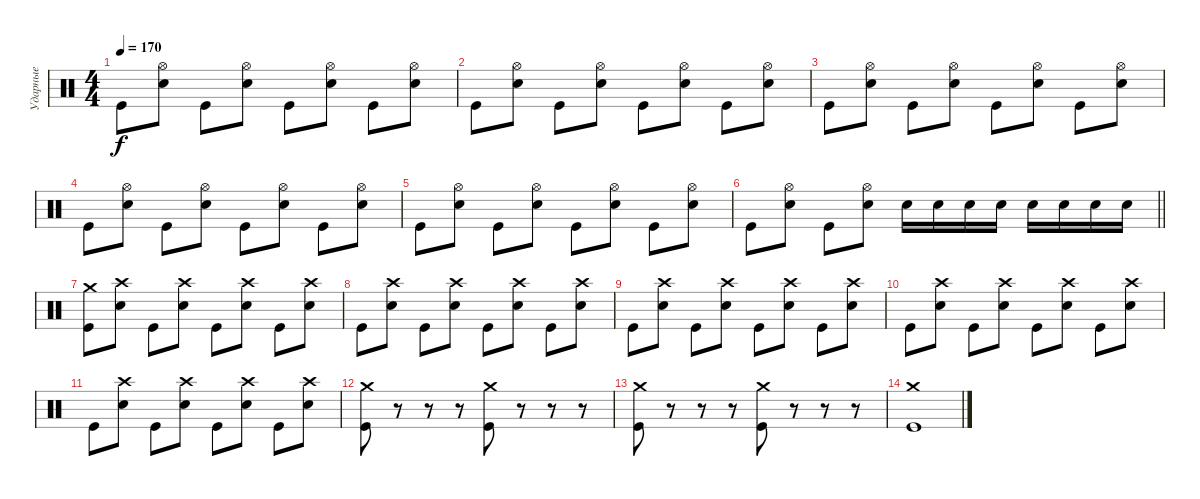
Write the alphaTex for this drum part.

\track ("Ударные" "Ударные") {instrument percussion}
\staff {score}
\articulation defaults
\ts (4 4)
\tempo 170
\clef neutral
\ks c "Kick (hit)".8{dy f}
("Hi-Hat (open)" "Electric Snare (hit)").8 "Kick (hit)".8 ("Hi-Hat (open)" "Electric Snare (hit)").8 "Kick (hit)".8 ("Hi-Hat (open)" "Electric Snare (hit)").8 "Kick (hit)".8 ("Hi-Hat (open)" "Electric Snare (hit)").8 |
"Kick (hit)".8 ("Hi-Hat (open)" "Electric Snare (hit)").8 "Kick (hit)".8 ("Hi-Hat (open)" "Electric Snare (hit)").8 "Kick (hit)".8 ("Hi-Hat (open)" "Electric Snare (hit)").8 "Kick (hit)".8 ("Hi-Hat (open)" "Electric Snare (hit)").8 |
"Kick (hit)".8 ("Hi-Hat (open)" "Electric Snare (hit)").8 "Kick (hit)".8 ("Hi-Hat (open)" "Electric Snare (hit)").8 "Kick (hit)".8 ("Hi-Hat (open)" "Electric Snare (hit)").8 "Kick (hit)".8 ("Hi-Hat (open)" "Electric Snare (hit)").8 |
"Kick (hit)".8 ("Hi-Hat (open)" "Electric Snare (hit)").8 "Kick (hit)".8 ("Hi-Hat (open)" "Electric Snare (hit)").8 "Kick (hit)".8 ("Hi-Hat (open)" "Electric Snare (hit)").8 "Kick (hit)".8 ("Hi-Hat (open)" "Electric Snare (hit)").8 |
"Kick (hit)".8 ("Hi-Hat (open)" "Electric Snare (hit)").8 "Kick (hit)".8 ("Hi-Hat (open)" "Electric Snare (hit)").8 "Kick (hit)".8 ("Hi-Hat (open)" "Electric Snare (hit)").8 "Kick (hit)".8 ("Hi-Hat (open)" "Electric Snare (hit)").8 |
\barLineRight lightlight "Kick (hit)".8
("Hi-Hat (open)" "Electric Snare (hit)").8 "Kick (hit)".8 ("Hi-Hat (open)" "Electric Snare (hit)").8 "Electric Snare (hit)".16 "Electric Snare (hit)".16 "Electric Snare (hit)".16 "Electric Snare (hit)".16 "Electric Snare (hit)".16 "Electric Snare (hit)".16 "Electric Snare (hit)".16 "Electric Snare (hit)".16 |
\section ("" " ")
("Crash medium (hit)" "Kick (hit)").8 ("Crash high (hit)" "Electric Snare (hit)").8 "Kick (hit)".8 ("Crash high (hit)" "Electric Snare (hit)").8 "Kick (hit)".8 ("Crash high (hit)" "Electric Snare (hit)").8 "Kick (hit)".8 ("Crash high (hit)" "Electric Snare (hit)").8 |
"Kick (hit)".8 ("Crash high (hit)" "Electric Snare (hit)").8 "Kick (hit)".8 ("Crash high (hit)" "Electric Snare (hit)").8 "Kick (hit)".8 ("Crash high (hit)" "Electric Snare (hit)").8 "Kick (hit)".8 ("Crash high (hit)" "Electric Snare (hit)").8 |
"Kick (hit)".8 ("Crash high (hit)" "Electric Snare (hit)").8 "Kick (hit)".8 ("Crash high (hit)" "Electric Snare (hit)").8 "Kick (hit)".8 ("Crash high (hit)" "Electric Snare (hit)").8 "Kick (hit)".8 ("Crash high (hit)" "Electric Snare (hit)").8 |
"Kick (hit)".8 ("Crash high (hit)" "Electric Snare (hit)").8 "Kick (hit)".8 ("Crash high (hit)" "Electric Snare (hit)").8 "Kick (hit)".8 ("Crash high (hit)" "Electric Snare (hit)").8 "Kick (hit)".8 ("Crash high (hit)" "Electric Snare (hit)").8 |
"Kick (hit)".8 ("Crash high (hit)" "Electric Snare (hit)").8 "Kick (hit)".8 ("Crash high (hit)" "Electric Snare (hit)").8 "Kick (hit)".8 ("Crash high (hit)" "Electric Snare (hit)").8 "Kick (hit)".8 ("Crash high (hit)" "Electric Snare (hit)").8 |
("Crash medium (hit)" "Kick (hit)").8 r.8 r.8 r.8 ("Crash medium (hit)" "Kick (hit)").8 r.8 r.8 r.8 |
("Crash medium (hit)" "Kick (hit)").8 r.8 r.8 r.8 ("Crash medium (hit)" "Kick (hit)").8 r.8 r.8 r.8 |
("Crash medium (hit)" "Kick (hit)").1
